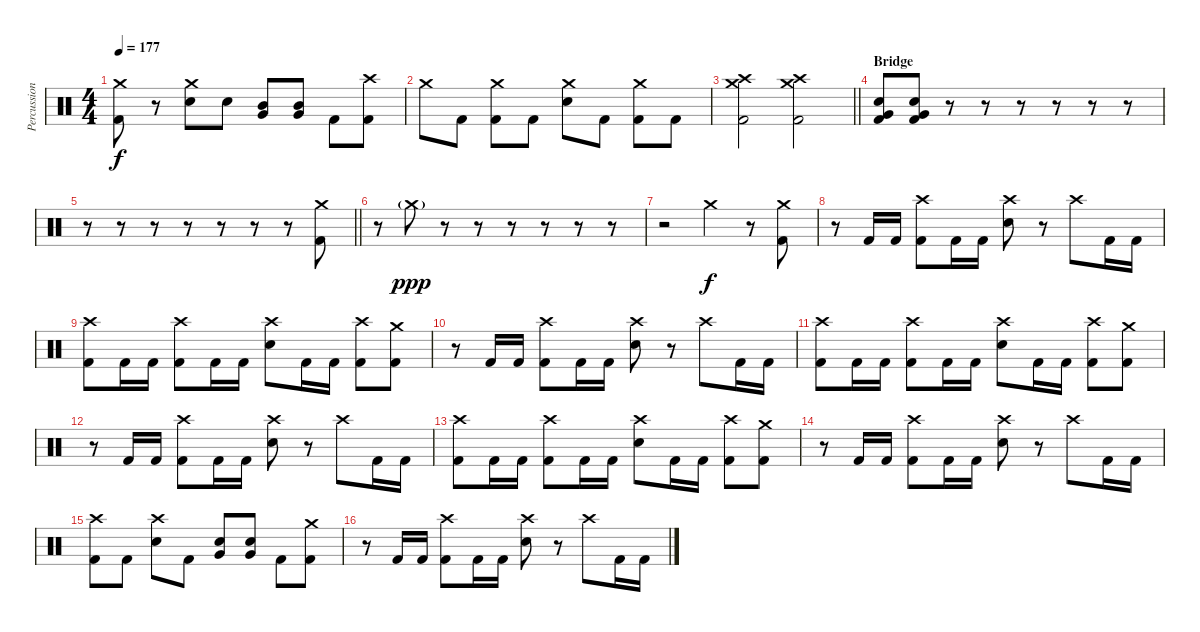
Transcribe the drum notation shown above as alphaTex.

\track ("Percussion" "Percussion") {instrument percussion}
\staff {score}
\articulation defaults
\ts (4 4)
\tempo 177
\clef neutral
\ks c
("Crash medium (hit)" "Kick (hit) 2").8{dy f} r.8 ("Crash medium (hit)" "Snare (hit) 2").8 "Snare (hit) 2".8 ("Mid Tom (hit)" "Very Low Tom (hit)").8 ("Mid Tom (hit)" "Very Low Tom (hit)").8 "Kick (hit) 2".8 ("Crash high (hit)" "Kick (hit) 2").8 |
"Crash medium (hit)".8 "Kick (hit) 2".8 ("Crash medium (hit)" "Kick (hit) 2").8 "Kick (hit) 2".8 ("Crash medium (hit)" "Snare (hit) 2").8 "Kick (hit) 2".8 ("Crash medium (hit)" "Kick (hit) 2").8 "Kick (hit) 2".8 |
\barLineRight lightlight
("Crash high (hit)" "Crash medium (hit)" "Kick (hit) 2").2 ("Crash high (hit)" "Crash medium (hit)" "Kick (hit) 2").2 |
\section ("" "Bridge")
("Very Low Tom (hit)" "Snare (hit) 2" "Kick (hit) 2").8 ("Very Low Tom (hit)" "Snare (hit) 2" "Kick (hit) 2").8 r.8 r.8 r.8 r.8 r.8 r.8 |
\barLineRight lightlight
r.8 r.8 r.8 r.8 r.8 r.8 r.8 ("Crash medium (hit)" "Kick (hit) 2").8 |
\section ("" "")
r.8 "Crash medium (hit)"{g}.8{dy ppp} r.8 r.8 r.8 r.8 r.8 r.8 |
r.2 "Crash medium (hit)".4{dy f} r.8 ("Crash medium (hit)" "Kick (hit) 2").8 |
r.8 "Kick (hit) 2".16 "Kick (hit) 2".16 ("Crash high (hit)" "Kick (hit) 2").8 "Kick (hit) 2".16 "Kick (hit) 2".16 ("Crash high (hit)" "Snare (hit) 2").8 r.8 "Crash high (hit)".8 "Kick (hit) 2".16 "Kick (hit) 2".16 |
("Crash high (hit)" "Kick (hit) 2").8 "Kick (hit) 2".16 "Kick (hit) 2".16 ("Crash high (hit)" "Kick (hit) 2").8 "Kick (hit) 2".16 "Kick (hit) 2".16 ("Crash high (hit)" "Snare (hit) 2").8 "Kick (hit) 2".16 "Kick (hit) 2".16 ("Crash high (hit)" "Kick (hit) 2").8 ("Crash medium (hit)" "Kick (hit) 2").8 |
r.8 "Kick (hit) 2".16 "Kick (hit) 2".16 ("Crash high (hit)" "Kick (hit) 2").8 "Kick (hit) 2".16 "Kick (hit) 2".16 ("Crash high (hit)" "Snare (hit) 2").8 r.8 "Crash high (hit)".8 "Kick (hit) 2".16 "Kick (hit) 2".16 |
("Crash high (hit)" "Kick (hit) 2").8 "Kick (hit) 2".16 "Kick (hit) 2".16 ("Crash high (hit)" "Kick (hit) 2").8 "Kick (hit) 2".16 "Kick (hit) 2".16 ("Crash high (hit)" "Snare (hit) 2").8 "Kick (hit) 2".16 "Kick (hit) 2".16 ("Crash high (hit)" "Kick (hit) 2").8 ("Crash medium (hit)" "Kick (hit) 2").8 |
r.8 "Kick (hit) 2".16 "Kick (hit) 2".16 ("Crash high (hit)" "Kick (hit) 2").8 "Kick (hit) 2".16 "Kick (hit) 2".16 ("Crash high (hit)" "Snare (hit) 2").8 r.8 "Crash high (hit)".8 "Kick (hit) 2".16 "Kick (hit) 2".16 |
("Crash high (hit)" "Kick (hit) 2").8 "Kick (hit) 2".16 "Kick (hit) 2".16 ("Crash high (hit)" "Kick (hit) 2").8 "Kick (hit) 2".16 "Kick (hit) 2".16 ("Crash high (hit)" "Snare (hit) 2").8 "Kick (hit) 2".16 "Kick (hit) 2".16 ("Crash high (hit)" "Kick (hit) 2").8 ("Crash medium (hit)" "Kick (hit) 2").8 |
r.8 "Kick (hit) 2".16 "Kick (hit) 2".16 ("Crash high (hit)" "Kick (hit) 2").8 "Kick (hit) 2".16 "Kick (hit) 2".16 ("Crash high (hit)" "Snare (hit) 2").8 r.8 "Crash high (hit)".8 "Kick (hit) 2".16 "Kick (hit) 2".16 |
("Crash high (hit)" "Kick (hit) 2").8 "Kick (hit) 2".8 ("Crash high (hit)" "Snare (hit) 2").8 "Kick (hit) 2".8 ("Very Low Tom (hit)" "Snare (hit) 2").8 ("Very Low Tom (hit)" "Snare (hit) 2").8 "Kick (hit) 2".8 ("Crash medium (hit)" "Kick (hit) 2").8 |
r.8 "Kick (hit) 2".16 "Kick (hit) 2".16 ("Crash high (hit)" "Kick (hit) 2").8 "Kick (hit) 2".16 "Kick (hit) 2".16 ("Crash high (hit)" "Snare (hit) 2").8 r.8 "Crash high (hit)".8 "Kick (hit) 2".16 "Kick (hit) 2".16
